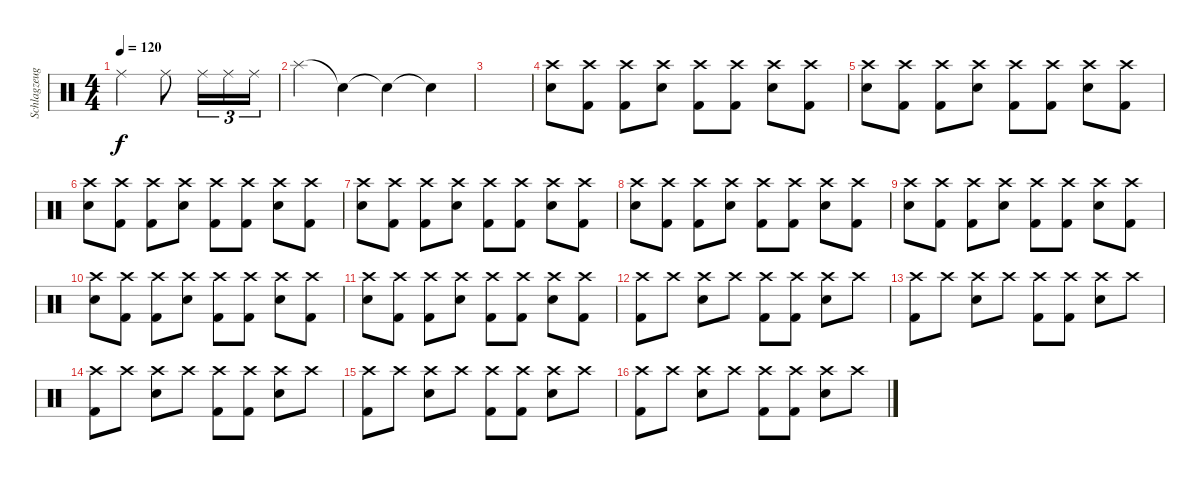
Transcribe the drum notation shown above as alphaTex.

\track ("Schlagzeug" "Schlagzeug") {instrument percussion}
\staff {score}
\articulation defaults
\ts (4 4)
\tempo 120
\clef neutral
\ks c "Ride (middle)".4{dy f} "Ride (middle)".8 "Ride (middle)".16{tu (3 2)} "Ride (middle)".16{tu (3 2)} "Ride (middle)".16{tu (3 2)}
|
"Splash (hit)".4 "Snare (hit)"{t}.4 "Snare (hit)"{t}.4 "Snare (hit)"{t}.4 |
|
("Snare (hit) 2" "Crash high (hit)").8 ("Kick (hit) 2" "Crash high (hit)").8 ("Crash high (hit)" "Kick (hit) 2").8 ("Snare (hit) 2" "Crash high (hit)").8 ("Kick (hit) 2" "Crash high (hit)").8 ("Kick (hit) 2" "Crash high (hit)").8 ("Snare (hit) 2" "Crash high (hit)").8 ("Crash high (hit)" "Kick (hit) 2").8 |
("Snare (hit) 2" "Crash high (hit)").8 ("Kick (hit) 2" "Crash high (hit)").8 ("Crash high (hit)" "Kick (hit) 2").8 ("Snare (hit) 2" "Crash high (hit)").8 ("Kick (hit) 2" "Crash high (hit)").8 ("Kick (hit) 2" "Crash high (hit)").8 ("Snare (hit) 2" "Crash high (hit)").8 ("Crash high (hit)" "Kick (hit) 2").8 |
("Snare (hit) 2" "Crash high (hit)").8 ("Kick (hit) 2" "Crash high (hit)").8 ("Crash high (hit)" "Kick (hit) 2").8 ("Snare (hit) 2" "Crash high (hit)").8 ("Kick (hit) 2" "Crash high (hit)").8 ("Kick (hit) 2" "Crash high (hit)").8 ("Snare (hit) 2" "Crash high (hit)").8 ("Crash high (hit)" "Kick (hit) 2").8 |
("Snare (hit) 2" "Crash high (hit)").8 ("Kick (hit) 2" "Crash high (hit)").8 ("Crash high (hit)" "Kick (hit) 2").8 ("Snare (hit) 2" "Crash high (hit)").8 ("Kick (hit) 2" "Crash high (hit)").8 ("Kick (hit) 2" "Crash high (hit)").8 ("Snare (hit) 2" "Crash high (hit)").8 ("Crash high (hit)" "Kick (hit) 2").8 |
("Snare (hit) 2" "Crash high (hit)").8 ("Kick (hit) 2" "Crash high (hit)").8 ("Crash high (hit)" "Kick (hit) 2").8 ("Snare (hit) 2" "Crash high (hit)").8 ("Kick (hit) 2" "Crash high (hit)").8 ("Kick (hit) 2" "Crash high (hit)").8 ("Snare (hit) 2" "Crash high (hit)").8 ("Crash high (hit)" "Kick (hit) 2").8 |
("Snare (hit) 2" "Crash high (hit)").8 ("Kick (hit) 2" "Crash high (hit)").8 ("Crash high (hit)" "Kick (hit) 2").8 ("Snare (hit) 2" "Crash high (hit)").8 ("Kick (hit) 2" "Crash high (hit)").8 ("Kick (hit) 2" "Crash high (hit)").8 ("Snare (hit) 2" "Crash high (hit)").8 ("Crash high (hit)" "Kick (hit) 2").8 |
("Snare (hit) 2" "Crash high (hit)").8 ("Kick (hit) 2" "Crash high (hit)").8 ("Crash high (hit)" "Kick (hit) 2").8 ("Snare (hit) 2" "Crash high (hit)").8 ("Kick (hit) 2" "Crash high (hit)").8 ("Kick (hit) 2" "Crash high (hit)").8 ("Snare (hit) 2" "Crash high (hit)").8 ("Crash high (hit)" "Kick (hit) 2").8 |
("Snare (hit) 2" "Crash high (hit)").8 ("Kick (hit) 2" "Crash high (hit)").8 ("Crash high (hit)" "Kick (hit) 2").8 ("Snare (hit) 2" "Crash high (hit)").8 ("Kick (hit) 2" "Crash high (hit)").8 ("Kick (hit) 2" "Crash high (hit)").8 ("Snare (hit) 2" "Crash high (hit)").8 ("Crash high (hit)" "Kick (hit) 2").8 |
("Crash high (hit)" "Kick (hit) 2").8 "Crash high (hit)".8 ("Snare (hit) 2" "Crash high (hit)").8 "Crash high (hit)".8 ("Kick (hit) 2" "Crash high (hit)").8 ("Crash high (hit)" "Kick (hit) 2").8 ("Snare (hit) 2" "Crash high (hit)").8 "Crash high (hit)".8 |
("Crash high (hit)" "Kick (hit) 2").8 "Crash high (hit)".8 ("Snare (hit) 2" "Crash high (hit)").8 "Crash high (hit)".8 ("Kick (hit) 2" "Crash high (hit)").8 ("Crash high (hit)" "Kick (hit) 2").8 ("Snare (hit) 2" "Crash high (hit)").8 "Crash high (hit)".8 |
("Crash high (hit)" "Kick (hit) 2").8 "Crash high (hit)".8 ("Snare (hit) 2" "Crash high (hit)").8 "Crash high (hit)".8 ("Kick (hit) 2" "Crash high (hit)").8 ("Crash high (hit)" "Kick (hit) 2").8 ("Snare (hit) 2" "Crash high (hit)").8 "Crash high (hit)".8 |
("Crash high (hit)" "Kick (hit) 2").8 "Crash high (hit)".8 ("Snare (hit) 2" "Crash high (hit)").8 "Crash high (hit)".8 ("Kick (hit) 2" "Crash high (hit)").8 ("Crash high (hit)" "Kick (hit) 2").8 ("Snare (hit) 2" "Crash high (hit)").8 "Crash high (hit)".8 |
("Crash high (hit)" "Kick (hit) 2").8 "Crash high (hit)".8 ("Snare (hit) 2" "Crash high (hit)").8 "Crash high (hit)".8 ("Kick (hit) 2" "Crash high (hit)").8 ("Crash high (hit)" "Kick (hit) 2").8 ("Snare (hit) 2" "Crash high (hit)").8 "Crash high (hit)".8
